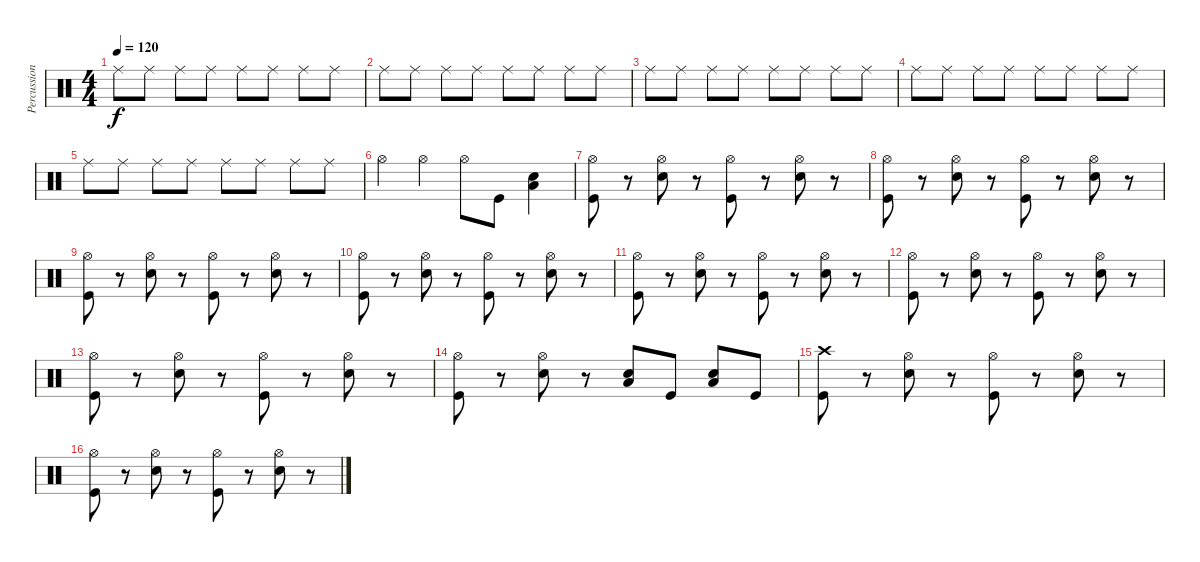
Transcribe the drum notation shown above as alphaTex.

\track ("Percussion" "Percussion") {instrument percussion}
\staff {score}
\articulation defaults
\ts (4 4)
\tempo 120
\clef neutral
\ks c "Ride (middle)".8{dy f} "Ride (middle)".8 "Ride (middle)".8 "Ride (middle)".8 "Ride (middle)".8 "Ride (middle)".8 "Ride (middle)".8 "Ride (middle)".8
|
"Ride (middle)".8 "Ride (middle)".8 "Ride (middle)".8 "Ride (middle)".8 "Ride (middle)".8 "Ride (middle)".8 "Ride (middle)".8 "Ride (middle)".8 |
"Ride (middle)".8 "Ride (middle)".8 "Ride (middle)".8 "Ride (middle)".8 "Ride (middle)".8 "Ride (middle)".8 "Ride (middle)".8 "Ride (middle)".8 |
"Ride (middle)".8 "Ride (middle)".8 "Ride (middle)".8 "Ride (middle)".8 "Ride (middle)".8 "Ride (middle)".8 "Ride (middle)".8 "Ride (middle)".8 |
"Ride (middle)".8 "Ride (middle)".8 "Ride (middle)".8 "Ride (middle)".8 "Ride (middle)".8 "Ride (middle)".8 "Ride (middle)".8 "Ride (middle)".8 |
"Hi-Hat (open)".4 "Hi-Hat (open)".4 "Hi-Hat (open)".8 "Kick (hit)".8 ("Low Floor Tom (hit)" "Electric Snare (hit)").4 |
("Hi-Hat (open)" "Kick (hit)").8 r.8 ("Electric Snare (hit)" "Hi-Hat (open)").8 r.8 ("Hi-Hat (open)" "Kick (hit)").8 r.8 ("Electric Snare (hit)" "Hi-Hat (open)").8 r.8 |
("Hi-Hat (open)" "Kick (hit)").8 r.8 ("Electric Snare (hit)" "Hi-Hat (open)").8 r.8 ("Hi-Hat (open)" "Kick (hit)").8 r.8 ("Electric Snare (hit)" "Hi-Hat (open)").8 r.8 |
("Hi-Hat (open)" "Kick (hit)").8 r.8 ("Electric Snare (hit)" "Hi-Hat (open)").8 r.8 ("Hi-Hat (open)" "Kick (hit)").8 r.8 ("Electric Snare (hit)" "Hi-Hat (open)").8 r.8 |
("Hi-Hat (open)" "Kick (hit)").8 r.8 ("Electric Snare (hit)" "Hi-Hat (open)").8 r.8 ("Hi-Hat (open)" "Kick (hit)").8 r.8 ("Electric Snare (hit)" "Hi-Hat (open)").8 r.8 |
("Hi-Hat (open)" "Kick (hit)").8 r.8 ("Electric Snare (hit)" "Hi-Hat (open)").8 r.8 ("Hi-Hat (open)" "Kick (hit)").8 r.8 ("Electric Snare (hit)" "Hi-Hat (open)").8 r.8 |
("Hi-Hat (open)" "Kick (hit)").8 r.8 ("Electric Snare (hit)" "Hi-Hat (open)").8 r.8 ("Hi-Hat (open)" "Kick (hit)").8 r.8 ("Electric Snare (hit)" "Hi-Hat (open)").8 r.8 |
("Hi-Hat (open)" "Kick (hit)").8 r.8 ("Electric Snare (hit)" "Hi-Hat (open)").8 r.8 ("Hi-Hat (open)" "Kick (hit)").8 r.8 ("Electric Snare (hit)" "Hi-Hat (open)").8 r.8 |
("Hi-Hat (open)" "Kick (hit)").8 r.8 ("Electric Snare (hit)" "Hi-Hat (open)").8 r.8 ("Low Tom (hit)" "Electric Snare (hit)").8 "Kick (hit)".8 ("Low Floor Tom (hit)" "Electric Snare (hit)").8 "Kick (hit)".8 |
("Crash high (hit)" "Kick (hit)").8 r.8 ("Electric Snare (hit)" "Hi-Hat (open)").8 r.8 ("Hi-Hat (open)" "Kick (hit)").8 r.8 ("Electric Snare (hit)" "Hi-Hat (open)").8 r.8 |
("Hi-Hat (open)" "Kick (hit)").8 r.8 ("Electric Snare (hit)" "Hi-Hat (open)").8 r.8 ("Hi-Hat (open)" "Kick (hit)").8 r.8 ("Electric Snare (hit)" "Hi-Hat (open)").8 r.8
